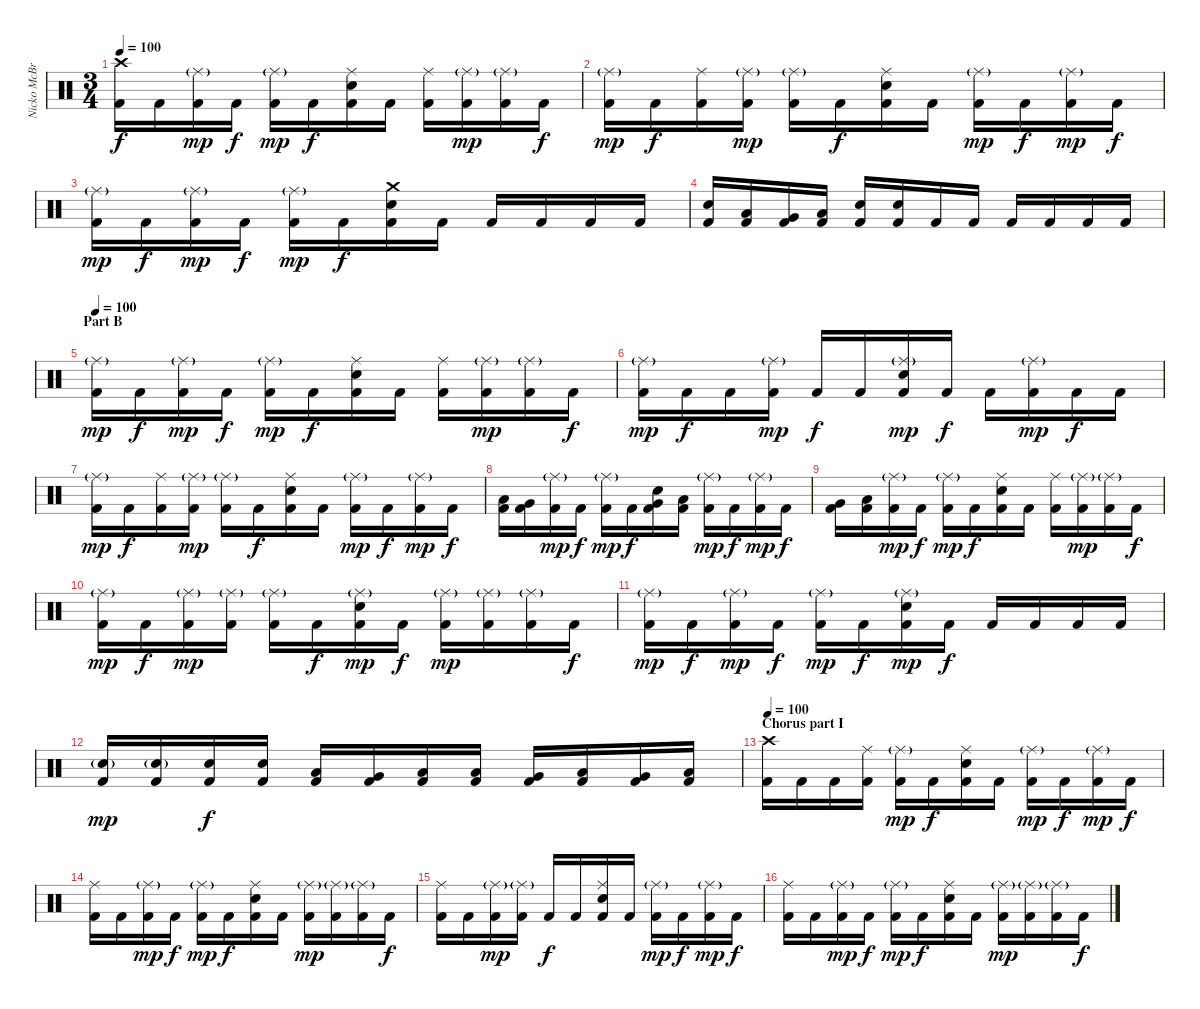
\track ("Nicko McBrain" "Nicko McBr") {instrument percussion}
\staff {score}
\articulation defaults
\ts (3 4)
\tempo 100
\clef neutral
\ks c
("Crash high (hit)" "Kick (hit) 2").16{dy f} "Kick (hit) 2".16 ("Ride (middle)"{g} "Kick (hit) 2").16{dy mp} "Kick (hit) 2".16{dy f} ("Ride (middle)"{g} "Kick (hit) 2").16{dy mp} "Kick (hit) 2".16{dy f} ("Ride (middle)" "Electric Snare (hit)" "Kick (hit) 2").16 "Kick (hit) 2".16 ("Ride (middle)" "Kick (hit) 2").16 ("Ride (middle)"{g} "Kick (hit) 2").16{dy mp} ("Ride (middle)"{g} "Kick (hit) 2").16 "Kick (hit) 2".16{dy f} |
("Ride (middle)"{g} "Kick (hit) 2").16{dy mp} "Kick (hit) 2".16{dy f} ("Ride (middle)" "Kick (hit) 2").16 ("Ride (middle)"{g} "Kick (hit) 2").16{dy mp} ("Ride (middle)"{g} "Kick (hit) 2").16 "Kick (hit) 2".16{dy f} ("Ride (middle)" "Electric Snare (hit)" "Kick (hit) 2").16 "Kick (hit) 2".16 ("Ride (middle)"{g} "Kick (hit) 2").16{dy mp} "Kick (hit) 2".16{dy f} ("Ride (middle)"{g} "Kick (hit) 2").16{dy mp} "Kick (hit) 2".16{dy f} |
("Ride (middle)"{g} "Kick (hit) 2").16{dy mp} "Kick (hit) 2".16{dy f} ("Ride (middle)"{g} "Kick (hit) 2").16{dy mp} "Kick (hit) 2".16{dy f} ("Ride (middle)"{g} "Kick (hit) 2").16{dy mp} "Kick (hit) 2".16{dy f} ("Crash medium (hit)" "Electric Snare (hit)" "Kick (hit) 2").16 "Kick (hit) 2".16 "Kick (hit) 2".16 "Kick (hit) 2".16 "Kick (hit) 2".16 "Kick (hit) 2".16 |
("Electric Snare (hit)" "Kick (hit) 2").16 ("Low Tom (hit)" "Kick (hit) 2").16 ("Very Low Tom (hit)" "Kick (hit) 2").16 ("Low Floor Tom (hit)" "Kick (hit) 2").16 ("Electric Snare (hit)" "Kick (hit) 2").16 ("Electric Snare (hit)" "Kick (hit) 2").16 "Kick (hit) 2".16 "Kick (hit) 2".16 "Kick (hit) 2".16 "Kick (hit) 2".16 "Kick (hit) 2".16 "Kick (hit) 2".16 |
\section ("" "Part B")
\tempo 100
("Ride (middle)"{g} "Kick (hit) 2").16{dy mp} "Kick (hit) 2".16{dy f} ("Ride (middle)"{g} "Kick (hit) 2").16{dy mp} "Kick (hit) 2".16{dy f} ("Ride (middle)"{g} "Kick (hit) 2").16{dy mp} "Kick (hit) 2".16{dy f} ("Ride (middle)" "Electric Snare (hit)" "Kick (hit) 2").16 "Kick (hit) 2".16 ("Ride (middle)" "Kick (hit) 2").16 ("Ride (middle)"{g} "Kick (hit) 2").16{dy mp} ("Ride (middle)"{g} "Kick (hit) 2").16 "Kick (hit) 2".16{dy f} |
("Ride (middle)"{g} "Kick (hit) 2").16{dy mp} "Kick (hit) 2".16{dy f} "Kick (hit) 2".16 ("Ride (middle)"{g} "Kick (hit) 2").16{dy mp} "Kick (hit) 2".16{dy f} "Kick (hit) 2".16 ("Ride (middle)"{g} "Electric Snare (hit)" "Kick (hit) 2").16{dy mp} "Kick (hit) 2".16{dy f} "Kick (hit) 2".16 ("Ride (middle)"{g} "Kick (hit) 2").16{dy mp} "Kick (hit) 2".16{dy f} "Kick (hit) 2".16 |
("Ride (middle)"{g} "Kick (hit) 2").16{dy mp} "Kick (hit) 2".16{dy f} ("Ride (middle)" "Kick (hit) 2").16 ("Ride (middle)"{g} "Kick (hit) 2").16{dy mp} ("Ride (middle)"{g} "Kick (hit) 2").16 "Kick (hit) 2".16{dy f} ("Ride (middle)" "Electric Snare (hit)" "Kick (hit) 2").16 "Kick (hit) 2".16 ("Ride (middle)"{g} "Kick (hit) 2").16{dy mp} "Kick (hit) 2".16{dy f} ("Ride (middle)"{g} "Kick (hit) 2").16{dy mp} "Kick (hit) 2".16{dy f} |
("Low Tom (hit)" "Kick (hit) 2").16 ("Very Low Tom (hit)" "Kick (hit) 2").16 ("Ride (middle)"{g} "Kick (hit) 2").16{dy mp} "Kick (hit) 2".16{dy f} ("Ride (middle)"{g} "Kick (hit) 2").16{dy mp} "Kick (hit) 2".16{dy f} ("Very Low Tom (hit)" "Electric Snare (hit)" "Kick (hit) 2").16 ("Low Floor Tom (hit)" "Kick (hit) 2").16 ("Ride (middle)"{g} "Kick (hit) 2").16{dy mp} "Kick (hit) 2".16{dy f} ("Ride (middle)"{g} "Kick (hit) 2").16{dy mp} "Kick (hit) 2".16{dy f} |
("Very Low Tom (hit)" "Kick (hit) 2").16 ("Low Floor Tom (hit)" "Kick (hit) 2").16 ("Ride (middle)"{g} "Kick (hit) 2").16{dy mp} "Kick (hit) 2".16{dy f} ("Ride (middle)"{g} "Kick (hit) 2").16{dy mp} "Kick (hit) 2".16{dy f} ("Ride (middle)" "Electric Snare (hit)" "Kick (hit) 2").16 "Kick (hit) 2".16 ("Ride (middle)" "Kick (hit) 2").16 ("Ride (middle)"{g} "Kick (hit) 2").16{dy mp} ("Ride (middle)"{g} "Kick (hit) 2").16 "Kick (hit) 2".16{dy f} |
("Ride (middle)"{g} "Kick (hit) 2").16{dy mp} "Kick (hit) 2".16{dy f} ("Ride (middle)"{g} "Kick (hit) 2").16{dy mp} ("Ride (middle)"{g} "Kick (hit) 2").16 ("Ride (middle)"{g} "Kick (hit) 2").16 "Kick (hit) 2".16{dy f} ("Ride (middle)"{g} "Electric Snare (hit)" "Kick (hit) 2").16{dy mp} "Kick (hit) 2".16{dy f} ("Ride (middle)"{g} "Kick (hit) 2").16{dy mp} ("Ride (middle)"{g} "Kick (hit) 2").16 ("Ride (middle)"{g} "Kick (hit) 2").16 "Kick (hit) 2".16{dy f} |
("Ride (middle)"{g} "Kick (hit) 2").16{dy mp} "Kick (hit) 2".16{dy f} ("Ride (middle)"{g} "Kick (hit) 2").16{dy mp} "Kick (hit) 2".16{dy f} ("Ride (middle)"{g} "Kick (hit) 2").16{dy mp} "Kick (hit) 2".16{dy f} ("Ride (middle)"{g} "Electric Snare (hit)" "Kick (hit) 2").16{dy mp} "Kick (hit) 2".16{dy f} "Kick (hit) 2".16 "Kick (hit) 2".16 "Kick (hit) 2".16 "Kick (hit) 2".16 |
("Electric Snare (hit)"{g} "Kick (hit) 2").16{dy mp} ("Electric Snare (hit)"{g} "Kick (hit) 2").16 ("Electric Snare (hit)" "Kick (hit) 2").16{dy f} ("Electric Snare (hit)" "Kick (hit) 2").16 ("Low Tom (hit)" "Kick (hit) 2").16 ("Very Low Tom (hit)" "Kick (hit) 2").16 ("Low Floor Tom (hit)" "Kick (hit) 2").16 ("Low Tom (hit)" "Kick (hit) 2").16 ("Very Low Tom (hit)" "Kick (hit) 2").16 ("Low Floor Tom (hit)" "Kick (hit) 2").16 ("Very Low Tom (hit)" "Kick (hit) 2").16 ("Low Floor Tom (hit)" "Kick (hit) 2").16 |
\section ("" "Chorus part I")
\tempo 100
("Crash high (hit)" "Kick (hit) 2").16 "Kick (hit) 2".16 "Kick (hit) 2".16 ("Ride (middle)" "Kick (hit) 2").16 ("Ride (middle)"{g} "Kick (hit) 2").16{dy mp} "Kick (hit) 2".16{dy f} ("Ride (middle)" "Electric Snare (hit)" "Kick (hit) 2").16 "Kick (hit) 2".16 ("Ride (middle)"{g} "Kick (hit) 2").16{dy mp} "Kick (hit) 2".16{dy f} ("Ride (middle)"{g} "Kick (hit) 2").16{dy mp} "Kick (hit) 2".16{dy f} |
("Ride (middle)" "Kick (hit) 2").16 "Kick (hit) 2".16 ("Ride (middle)"{g} "Kick (hit) 2").16{dy mp} "Kick (hit) 2".16{dy f} ("Ride (middle)"{g} "Kick (hit) 2").16{dy mp} "Kick (hit) 2".16{dy f} ("Ride (middle)" "Electric Snare (hit)" "Kick (hit) 2").16 "Kick (hit) 2".16 ("Ride (middle)"{g} "Kick (hit) 2").16{dy mp} ("Ride (middle)"{g} "Kick (hit) 2").16 ("Ride (middle)"{g} "Kick (hit) 2").16 "Kick (hit) 2".16{dy f} |
("Ride (middle)" "Kick (hit) 2").16 "Kick (hit) 2".16 ("Ride (middle)"{g} "Kick (hit) 2").16{dy mp} ("Ride (middle)"{g} "Kick (hit) 2").16 "Kick (hit) 2".16{dy f} "Kick (hit) 2".16 ("Ride (middle)" "Electric Snare (hit)" "Kick (hit) 2").16 "Kick (hit) 2".16 ("Ride (middle)"{g} "Kick (hit) 2").16{dy mp} "Kick (hit) 2".16{dy f} ("Ride (middle)"{g} "Kick (hit) 2").16{dy mp} "Kick (hit) 2".16{dy f} |
("Ride (middle)" "Kick (hit) 2").16 "Kick (hit) 2".16 ("Ride (middle)"{g} "Kick (hit) 2").16{dy mp} "Kick (hit) 2".16{dy f} ("Ride (middle)"{g} "Kick (hit) 2").16{dy mp} "Kick (hit) 2".16{dy f} ("Ride (middle)" "Electric Snare (hit)" "Kick (hit) 2").16 "Kick (hit) 2".16 ("Ride (middle)"{g} "Kick (hit) 2").16{dy mp} ("Ride (middle)"{g} "Kick (hit) 2").16 ("Ride (middle)"{g} "Kick (hit) 2").16 "Kick (hit) 2".16{dy f}
